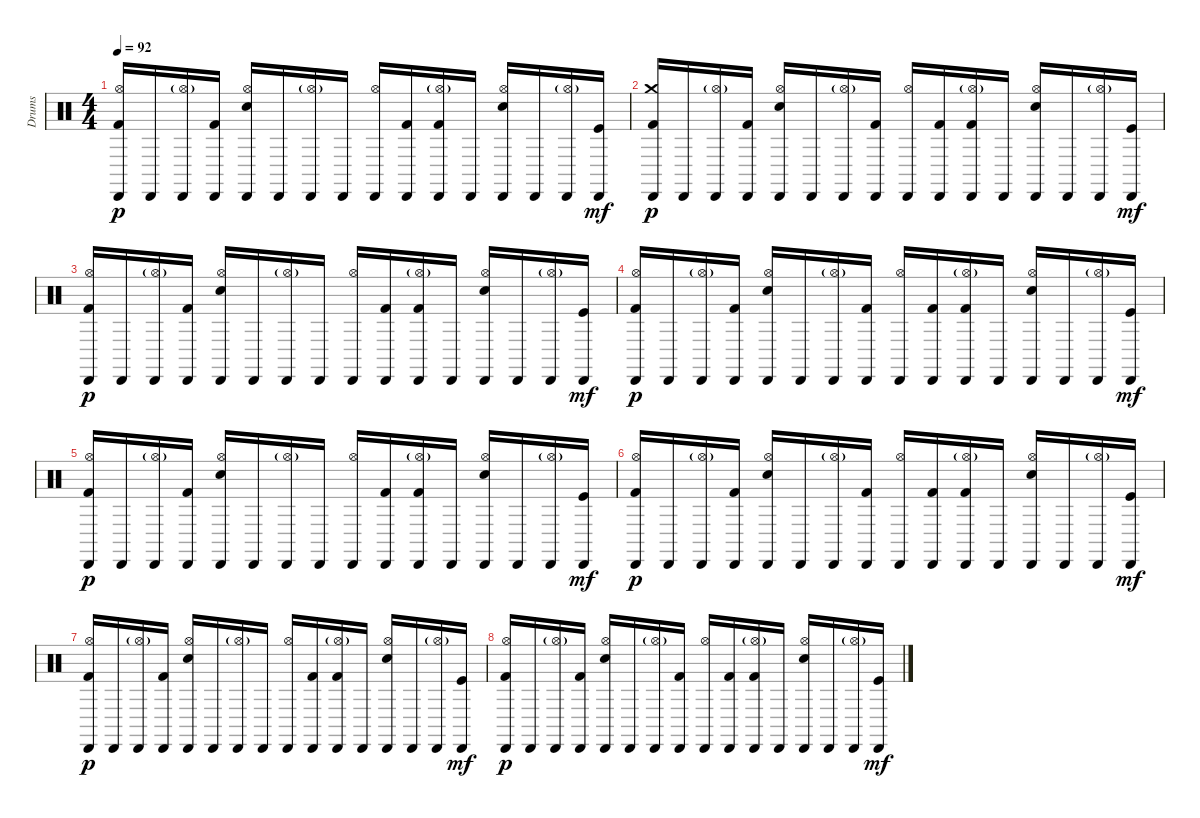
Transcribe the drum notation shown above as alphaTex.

\track ("Drums" "Drums") {instrument percussion}
\staff {score}
\articulation defaults
\ts (4 4)
\tempo 92
\clef neutral
\ks c
("Hi-Hat (open)" "Cabasa (hit)" "Kick (hit) 2").16{dy p} "Cabasa (hit)".16 ("Hi-Hat (open)"{g} "Cabasa (hit)").16 ("Cabasa (hit)" "Kick (hit) 2").16 ("Hi-Hat (open)" "Cabasa (hit)" "Electric Snare (hit)").16 "Cabasa (hit)".16 ("Hi-Hat (open)"{g} "Cabasa (hit)").16 "Cabasa (hit)".16 ("Hi-Hat (open)" "Cabasa (hit)").16 ("Cabasa (hit)" "Kick (hit) 2").16 ("Hi-Hat (open)"{g} "Cabasa (hit)" "Kick (hit) 2").16 "Cabasa (hit)".16 ("Hi-Hat (open)" "Cabasa (hit)" "Electric Snare (hit)").16 "Cabasa (hit)".16 ("Hi-Hat (open)"{g} "Cabasa (hit)").16 ("Cabasa (hit)" "Kick (hit)").16{dy mf} |
("Crash medium (hit)" "Cabasa (hit)" "Kick (hit) 2").16{dy p} "Cabasa (hit)".16 ("Hi-Hat (open)"{g} "Cabasa (hit)").16 ("Cabasa (hit)" "Kick (hit) 2").16 ("Hi-Hat (open)" "Cabasa (hit)" "Electric Snare (hit)").16 "Cabasa (hit)".16 ("Hi-Hat (open)"{g} "Cabasa (hit)").16 ("Cabasa (hit)" "Kick (hit) 2").16 ("Hi-Hat (open)" "Cabasa (hit)").16 ("Cabasa (hit)" "Kick (hit) 2").16 ("Hi-Hat (open)"{g} "Cabasa (hit)" "Kick (hit) 2").16 "Cabasa (hit)".16 ("Hi-Hat (open)" "Cabasa (hit)" "Electric Snare (hit)").16 "Cabasa (hit)".16 ("Hi-Hat (open)"{g} "Cabasa (hit)").16 ("Cabasa (hit)" "Kick (hit)").16{dy mf} |
("Hi-Hat (open)" "Cabasa (hit)" "Kick (hit) 2").16{dy p} "Cabasa (hit)".16 ("Hi-Hat (open)"{g} "Cabasa (hit)").16 ("Cabasa (hit)" "Kick (hit) 2").16 ("Hi-Hat (open)" "Cabasa (hit)" "Electric Snare (hit)").16 "Cabasa (hit)".16 ("Hi-Hat (open)"{g} "Cabasa (hit)").16 "Cabasa (hit)".16 ("Hi-Hat (open)" "Cabasa (hit)").16 ("Cabasa (hit)" "Kick (hit) 2").16 ("Hi-Hat (open)"{g} "Cabasa (hit)" "Kick (hit) 2").16 "Cabasa (hit)".16 ("Hi-Hat (open)" "Cabasa (hit)" "Electric Snare (hit)").16 "Cabasa (hit)".16 ("Hi-Hat (open)"{g} "Cabasa (hit)").16 ("Cabasa (hit)" "Kick (hit)").16{dy mf} |
("Hi-Hat (open)" "Cabasa (hit)" "Kick (hit) 2").16{dy p} "Cabasa (hit)".16 ("Hi-Hat (open)"{g} "Cabasa (hit)").16 ("Cabasa (hit)" "Kick (hit) 2").16 ("Hi-Hat (open)" "Cabasa (hit)" "Electric Snare (hit)").16 "Cabasa (hit)".16 ("Hi-Hat (open)"{g} "Cabasa (hit)").16 ("Cabasa (hit)" "Kick (hit) 2").16 ("Hi-Hat (open)" "Cabasa (hit)").16 ("Cabasa (hit)" "Kick (hit) 2").16 ("Hi-Hat (open)"{g} "Cabasa (hit)" "Kick (hit) 2").16 "Cabasa (hit)".16 ("Hi-Hat (open)" "Cabasa (hit)" "Electric Snare (hit)").16 "Cabasa (hit)".16 ("Hi-Hat (open)"{g} "Cabasa (hit)").16 ("Cabasa (hit)" "Kick (hit)").16{dy mf} |
("Hi-Hat (open)" "Cabasa (hit)" "Kick (hit) 2").16{dy p} "Cabasa (hit)".16 ("Hi-Hat (open)"{g} "Cabasa (hit)").16 ("Cabasa (hit)" "Kick (hit) 2").16 ("Hi-Hat (open)" "Cabasa (hit)" "Electric Snare (hit)").16 "Cabasa (hit)".16 ("Hi-Hat (open)"{g} "Cabasa (hit)").16 "Cabasa (hit)".16 ("Hi-Hat (open)" "Cabasa (hit)").16 ("Cabasa (hit)" "Kick (hit) 2").16 ("Hi-Hat (open)"{g} "Cabasa (hit)" "Kick (hit) 2").16 "Cabasa (hit)".16 ("Hi-Hat (open)" "Cabasa (hit)" "Electric Snare (hit)").16 "Cabasa (hit)".16 ("Hi-Hat (open)"{g} "Cabasa (hit)").16 ("Cabasa (hit)" "Kick (hit)").16{dy mf} |
("Hi-Hat (open)" "Cabasa (hit)" "Kick (hit) 2").16{dy p} "Cabasa (hit)".16 ("Hi-Hat (open)"{g} "Cabasa (hit)").16 ("Cabasa (hit)" "Kick (hit) 2").16 ("Hi-Hat (open)" "Cabasa (hit)" "Electric Snare (hit)").16 "Cabasa (hit)".16 ("Hi-Hat (open)"{g} "Cabasa (hit)").16 ("Cabasa (hit)" "Kick (hit) 2").16 ("Hi-Hat (open)" "Cabasa (hit)").16 ("Cabasa (hit)" "Kick (hit) 2").16 ("Hi-Hat (open)"{g} "Cabasa (hit)" "Kick (hit) 2").16 "Cabasa (hit)".16 ("Hi-Hat (open)" "Cabasa (hit)" "Electric Snare (hit)").16 "Cabasa (hit)".16 ("Hi-Hat (open)"{g} "Cabasa (hit)").16 ("Cabasa (hit)" "Kick (hit)").16{dy mf} |
("Hi-Hat (open)" "Cabasa (hit)" "Kick (hit) 2").16{dy p} "Cabasa (hit)".16 ("Hi-Hat (open)"{g} "Cabasa (hit)").16 ("Cabasa (hit)" "Kick (hit) 2").16 ("Hi-Hat (open)" "Cabasa (hit)" "Electric Snare (hit)").16 "Cabasa (hit)".16 ("Hi-Hat (open)"{g} "Cabasa (hit)").16 "Cabasa (hit)".16 ("Hi-Hat (open)" "Cabasa (hit)").16 ("Cabasa (hit)" "Kick (hit) 2").16 ("Hi-Hat (open)"{g} "Cabasa (hit)" "Kick (hit) 2").16 "Cabasa (hit)".16 ("Hi-Hat (open)" "Cabasa (hit)" "Electric Snare (hit)").16 "Cabasa (hit)".16 ("Hi-Hat (open)"{g} "Cabasa (hit)").16 ("Cabasa (hit)" "Kick (hit)").16{dy mf} |
("Hi-Hat (open)" "Cabasa (hit)" "Kick (hit) 2").16{dy p} "Cabasa (hit)".16 ("Hi-Hat (open)"{g} "Cabasa (hit)").16 ("Cabasa (hit)" "Kick (hit) 2").16 ("Hi-Hat (open)" "Cabasa (hit)" "Electric Snare (hit)").16 "Cabasa (hit)".16 ("Hi-Hat (open)"{g} "Cabasa (hit)").16 ("Cabasa (hit)" "Kick (hit) 2").16 ("Hi-Hat (open)" "Cabasa (hit)").16 ("Cabasa (hit)" "Kick (hit) 2").16 ("Hi-Hat (open)"{g} "Cabasa (hit)" "Kick (hit) 2").16 "Cabasa (hit)".16 ("Hi-Hat (open)" "Cabasa (hit)" "Electric Snare (hit)").16 "Cabasa (hit)".16 ("Hi-Hat (open)"{g} "Cabasa (hit)").16 ("Cabasa (hit)" "Kick (hit)").16{dy mf}
